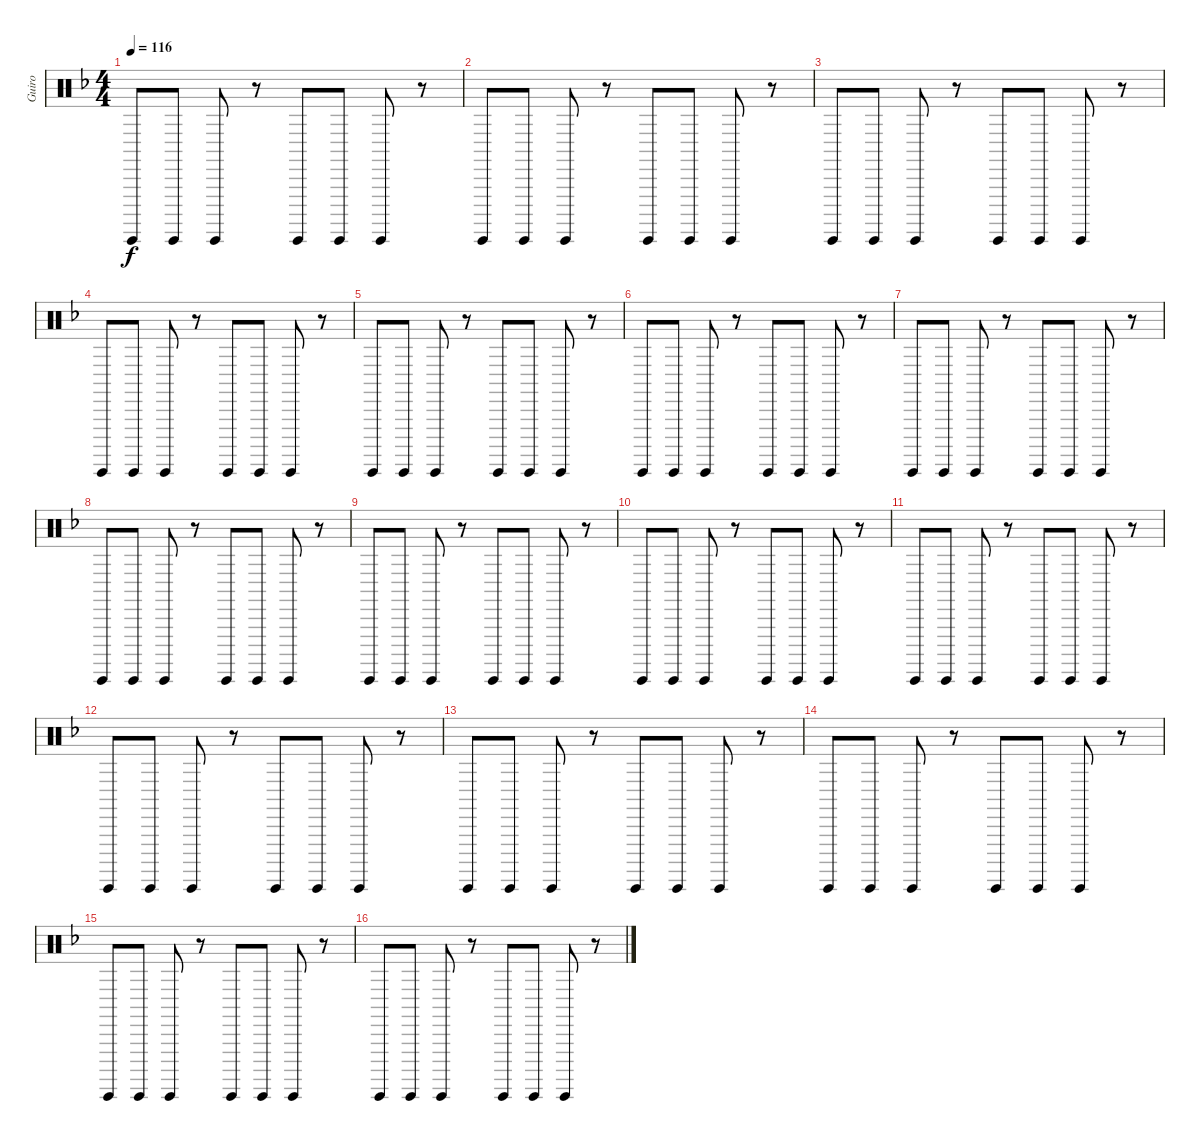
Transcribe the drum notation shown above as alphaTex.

\track ("Guiro" "Guiro") {instrument percussion}
\staff {score}
\articulation defaults
\ts (4 4)
\tempo 116
\clef neutral
\ks dminor "Guiro (hit)".8{dy f} "Guiro (hit)".8 "Guiro (hit)".8
r.8 "Guiro (hit)".8 "Guiro (hit)".8 "Guiro (hit)".8 r.8 |
"Guiro (hit)".8 "Guiro (hit)".8 "Guiro (hit)".8 r.8 "Guiro (hit)".8 "Guiro (hit)".8 "Guiro (hit)".8 r.8 |
"Guiro (hit)".8 "Guiro (hit)".8 "Guiro (hit)".8 r.8 "Guiro (hit)".8 "Guiro (hit)".8 "Guiro (hit)".8 r.8 |
"Guiro (hit)".8 "Guiro (hit)".8 "Guiro (hit)".8 r.8 "Guiro (hit)".8 "Guiro (hit)".8 "Guiro (hit)".8 r.8 |
"Guiro (hit)".8 "Guiro (hit)".8 "Guiro (hit)".8 r.8 "Guiro (hit)".8 "Guiro (hit)".8 "Guiro (hit)".8 r.8 |
"Guiro (hit)".8 "Guiro (hit)".8 "Guiro (hit)".8 r.8 "Guiro (hit)".8 "Guiro (hit)".8 "Guiro (hit)".8 r.8 |
"Guiro (hit)".8 "Guiro (hit)".8 "Guiro (hit)".8 r.8 "Guiro (hit)".8 "Guiro (hit)".8 "Guiro (hit)".8 r.8 |
"Guiro (hit)".8 "Guiro (hit)".8 "Guiro (hit)".8 r.8 "Guiro (hit)".8 "Guiro (hit)".8 "Guiro (hit)".8 r.8 |
"Guiro (hit)".8 "Guiro (hit)".8 "Guiro (hit)".8 r.8 "Guiro (hit)".8 "Guiro (hit)".8 "Guiro (hit)".8 r.8 |
"Guiro (hit)".8 "Guiro (hit)".8 "Guiro (hit)".8 r.8 "Guiro (hit)".8 "Guiro (hit)".8 "Guiro (hit)".8 r.8 |
"Guiro (hit)".8 "Guiro (hit)".8 "Guiro (hit)".8 r.8 "Guiro (hit)".8 "Guiro (hit)".8 "Guiro (hit)".8 r.8 |
"Guiro (hit)".8 "Guiro (hit)".8 "Guiro (hit)".8 r.8 "Guiro (hit)".8 "Guiro (hit)".8 "Guiro (hit)".8 r.8 |
"Guiro (hit)".8 "Guiro (hit)".8 "Guiro (hit)".8 r.8 "Guiro (hit)".8 "Guiro (hit)".8 "Guiro (hit)".8 r.8 |
"Guiro (hit)".8 "Guiro (hit)".8 "Guiro (hit)".8 r.8 "Guiro (hit)".8 "Guiro (hit)".8 "Guiro (hit)".8 r.8 |
"Guiro (hit)".8 "Guiro (hit)".8 "Guiro (hit)".8 r.8 "Guiro (hit)".8 "Guiro (hit)".8 "Guiro (hit)".8 r.8 |
"Guiro (hit)".8 "Guiro (hit)".8 "Guiro (hit)".8 r.8 "Guiro (hit)".8 "Guiro (hit)".8 "Guiro (hit)".8 r.8
